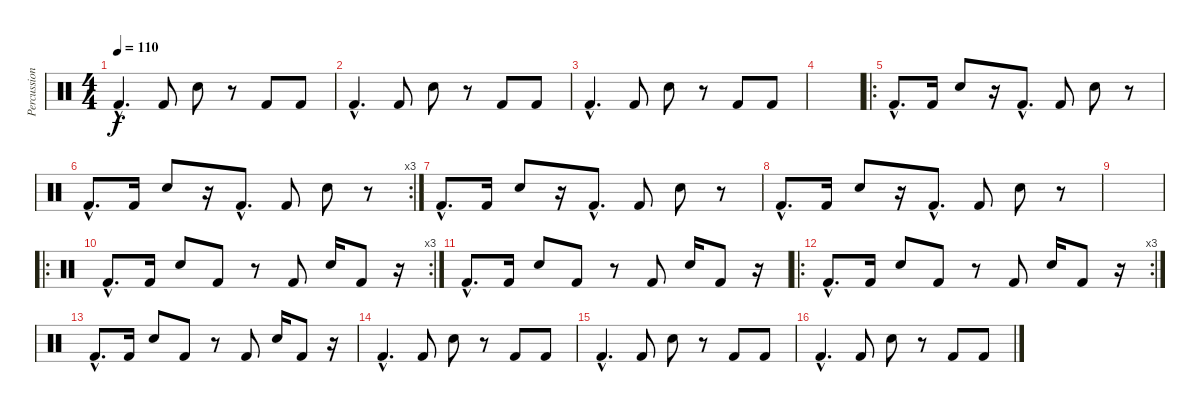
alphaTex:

\track ("Percussions" "Percussion") {instrument percussion}
\staff {score}
\articulation defaults
\ts (4 4)
\tempo 110
\clef neutral
\ks c "Kick (hit) 2"{hac}.4{d dy f} "Kick (hit) 2".8 "Electric Snare (hit)".8
r.8 "Kick (hit) 2".8 "Kick (hit) 2".8 |
"Kick (hit) 2"{hac}.4{d} "Kick (hit) 2".8 "Electric Snare (hit)".8 r.8 "Kick (hit) 2".8 "Kick (hit) 2".8 |
"Kick (hit) 2"{hac}.4{d} "Kick (hit) 2".8 "Electric Snare (hit)".8 r.8 "Kick (hit) 2".8 "Kick (hit) 2".8 |
|
\ro "Kick (hit) 2"{hac}.8{d} "Kick (hit) 2".16 "Electric Snare (hit)".8
r.16 "Kick (hit) 2"{hac}.8{d} "Kick (hit) 2".8 "Electric Snare (hit)".8 r.8 |
\rc 3 "Kick (hit) 2"{hac}.8{d} "Kick (hit) 2".16 "Electric Snare (hit)".8
r.16 "Kick (hit) 2"{hac}.8{d} "Kick (hit) 2".8 "Electric Snare (hit)".8 r.8 |
"Kick (hit) 2"{hac}.8{d} "Kick (hit) 2".16 "Electric Snare (hit)".8 r.16 "Kick (hit) 2"{hac}.8{d} "Kick (hit) 2".8 "Electric Snare (hit)".8 r.8 |
"Kick (hit) 2"{hac}.8{d} "Kick (hit) 2".16 "Electric Snare (hit)".8 r.16 "Kick (hit) 2"{hac}.8{d} "Kick (hit) 2".8 "Electric Snare (hit)".8 r.8 |
|
\ro
\rc 3 "Kick (hit) 2"{hac}.8{d} "Kick (hit) 2".16 "Electric Snare (hit)".8 "Kick (hit) 2".8
r.8 "Kick (hit) 2".8 "Electric Snare (hit)".16 "Kick (hit) 2".8 r.16 |
"Kick (hit) 2"{hac}.8{d} "Kick (hit) 2".16 "Electric Snare (hit)".8 "Kick (hit) 2".8 r.8 "Kick (hit) 2".8 "Electric Snare (hit)".16 "Kick (hit) 2".8 r.16 |
\ro
\rc 3 "Kick (hit) 2"{hac}.8{d} "Kick (hit) 2".16 "Electric Snare (hit)".8 "Kick (hit) 2".8
r.8 "Kick (hit) 2".8 "Electric Snare (hit)".16 "Kick (hit) 2".8 r.16 |
"Kick (hit) 2"{hac}.8{d} "Kick (hit) 2".16 "Electric Snare (hit)".8 "Kick (hit) 2".8 r.8 "Kick (hit) 2".8 "Electric Snare (hit)".16 "Kick (hit) 2".8 r.16 |
"Kick (hit) 2"{hac}.4{d} "Kick (hit) 2".8 "Electric Snare (hit)".8 r.8 "Kick (hit) 2".8 "Kick (hit) 2".8 |
"Kick (hit) 2"{hac}.4{d} "Kick (hit) 2".8 "Electric Snare (hit)".8 r.8 "Kick (hit) 2".8 "Kick (hit) 2".8 |
"Kick (hit) 2"{hac}.4{d} "Kick (hit) 2".8 "Electric Snare (hit)".8 r.8 "Kick (hit) 2".8 "Kick (hit) 2".8
